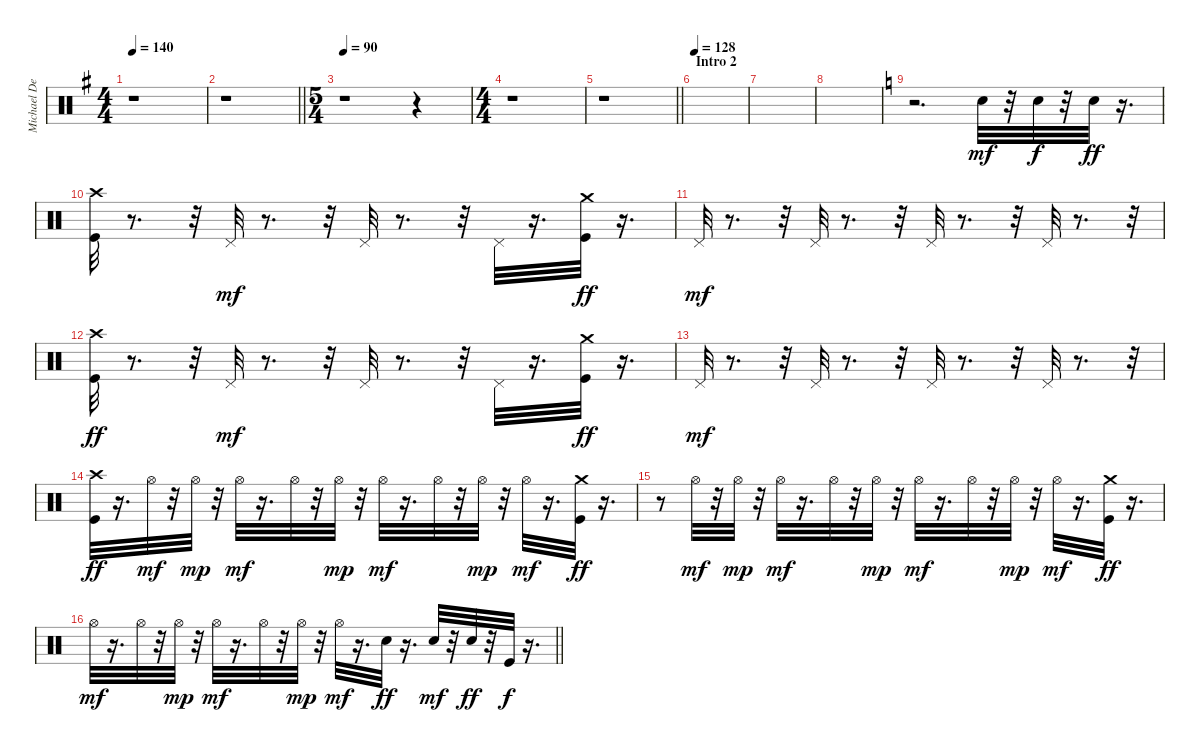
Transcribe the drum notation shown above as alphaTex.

\track ("Michael DeRosier" "Michael De") {instrument percussion}
\staff {score}
\articulation defaults
\ts (4 4)
\tempo 140
\clef neutral
\ks g
r.1{dy mf} |
\barLineRight lightlight
r.1 |
\ts (5 4)
\tempo 90
r.1 r.4 |
\ts (4 4)
r.1 |
\barLineRight lightlight
r.1 |
\section ("" "Intro 2")
\tempo 128
|
|
|
\ks c
r.2{d} "Snare (hit) 2".32 r.32 "Snare (hit) 2".32{dy f} r.32 "Snare (hit) 2".32{dy ff} r.16{d} |
("Kick (hit)" "Crash high (hit)").32 r.8{d} r.32 "Pedal Hi-Hat (hit)".32{dy mf} r.8{d} r.32 "Pedal Hi-Hat (hit)".32 r.8{d} r.32 "Pedal Hi-Hat (hit)".32 r.16{d} ("Kick (hit)" "Crash medium (hit)").32{dy ff} r.16{d} |
"Pedal Hi-Hat (hit)".32{dy mf} r.8{d} r.32 "Pedal Hi-Hat (hit)".32 r.8{d} r.32 "Pedal Hi-Hat (hit)".32 r.8{d} r.32 "Pedal Hi-Hat (hit)".32 r.8{d} r.32 |
("Kick (hit)" "Crash high (hit)").32{dy ff} r.8{d} r.32 "Pedal Hi-Hat (hit)".32{dy mf} r.8{d} r.32 "Pedal Hi-Hat (hit)".32 r.8{d} r.32 "Pedal Hi-Hat (hit)".32 r.16{d} ("Kick (hit)" "Crash medium (hit)").32{dy ff} r.16{d} |
"Pedal Hi-Hat (hit)".32{dy mf} r.8{d} r.32 "Pedal Hi-Hat (hit)".32 r.8{d} r.32 "Pedal Hi-Hat (hit)".32 r.8{d} r.32 "Pedal Hi-Hat (hit)".32 r.8{d} r.32 |
("Kick (hit)" "Crash high (hit)").32{dy ff} r.16{d} "Hi-Hat (open)".32{dy mf} r.32 "Hi-Hat (open)".32{dy mp} r.32 "Hi-Hat (open)".32{dy mf} r.16{d} "Hi-Hat (open)".32 r.32 "Hi-Hat (open)".32{dy mp} r.32 "Hi-Hat (open)".32{dy mf} r.16{d} "Hi-Hat (open)".32 r.32 "Hi-Hat (open)".32{dy mp} r.32 "Hi-Hat (open)".32{dy mf} r.16{d} ("Kick (hit)" "Crash medium (hit)").32{dy ff} r.16{d} |
r.8 "Hi-Hat (open)".32{dy mf} r.32 "Hi-Hat (open)".32{dy mp} r.32 "Hi-Hat (open)".32{dy mf} r.16{d} "Hi-Hat (open)".32 r.32 "Hi-Hat (open)".32{dy mp} r.32 "Hi-Hat (open)".32{dy mf} r.16{d} "Hi-Hat (open)".32 r.32 "Hi-Hat (open)".32{dy mp} r.32 "Hi-Hat (open)".32{dy mf} r.16{d} ("Kick (hit)" "Crash medium (hit)").32{dy ff} r.16{d} |
\barLineRight lightlight "Hi-Hat (open)".32{dy mf}
r.16{d} "Hi-Hat (open)".32 r.32 "Hi-Hat (open)".32{dy mp} r.32 "Hi-Hat (open)".32{dy mf} r.16{d} "Hi-Hat (open)".32 r.32 "Hi-Hat (open)".32{dy mp} r.32 "Hi-Hat (open)".32{dy mf} r.16{d} "Snare (hit) 2".32{dy ff} r.16{d} "Snare (hit) 2".32{dy mf} r.32 "Snare (hit) 2".32{dy ff} r.32 "Kick (hit)".32{dy f} r.16{d}
